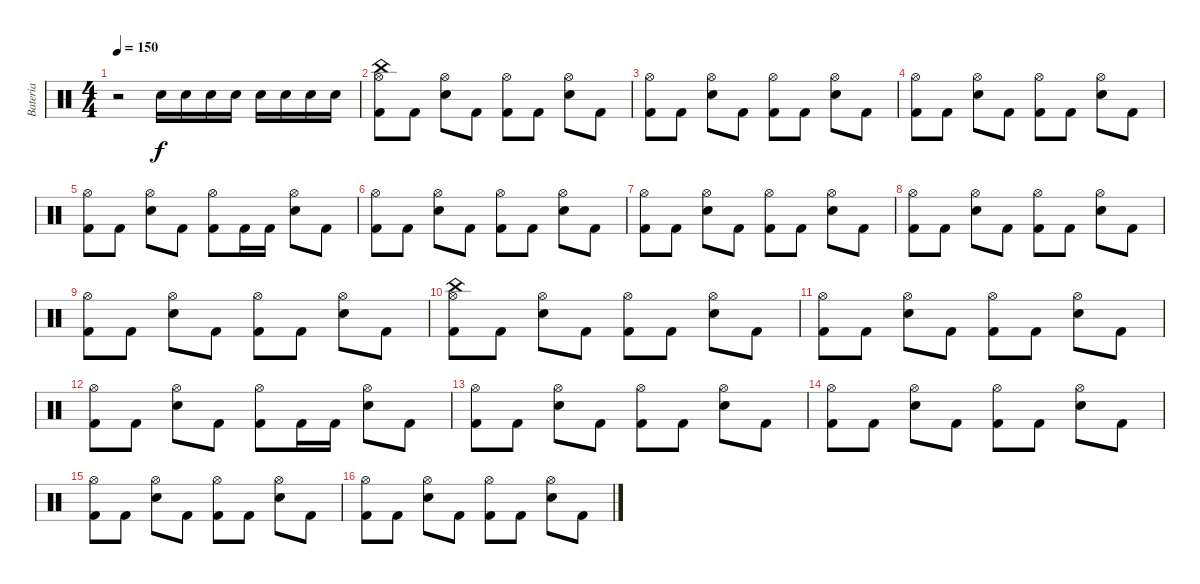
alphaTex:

\track ("Bateria" "Bateria") {instrument percussion}
\staff {score}
\articulation defaults
\ts (4 4)
\tempo 150
\clef neutral
\ks c
r.2{dy f} "Electric Snare (hit)".16 "Electric Snare (hit)".16 "Electric Snare (hit)".16 "Electric Snare (hit)".16 "Electric Snare (hit)".16 "Electric Snare (hit)".16 "Electric Snare (hit)".16 "Electric Snare (hit)".16 |
("Kick (hit) 2" "China (hit)" "Hi-Hat (open)").8 "Kick (hit) 2".8 ("Electric Snare (hit)" "Hi-Hat (open)").8 "Kick (hit) 2".8 ("Kick (hit) 2" "Hi-Hat (open)").8 "Kick (hit) 2".8 ("Electric Snare (hit)" "Hi-Hat (open)").8 "Kick (hit) 2".8 |
("Kick (hit) 2" "Hi-Hat (open)").8 "Kick (hit) 2".8 ("Electric Snare (hit)" "Hi-Hat (open)").8 "Kick (hit) 2".8 ("Kick (hit) 2" "Hi-Hat (open)").8 "Kick (hit) 2".8 ("Electric Snare (hit)" "Hi-Hat (open)").8 "Kick (hit) 2".8 |
("Kick (hit) 2" "Hi-Hat (open)").8 "Kick (hit) 2".8 ("Electric Snare (hit)" "Hi-Hat (open)").8 "Kick (hit) 2".8 ("Kick (hit) 2" "Hi-Hat (open)").8 "Kick (hit) 2".8 ("Electric Snare (hit)" "Hi-Hat (open)").8 "Kick (hit) 2".8 |
("Kick (hit) 2" "Hi-Hat (open)").8 "Kick (hit) 2".8 ("Electric Snare (hit)" "Hi-Hat (open)").8 "Kick (hit) 2".8 ("Kick (hit) 2" "Hi-Hat (open)").8 "Kick (hit) 2".16 "Kick (hit) 2".16 ("Electric Snare (hit)" "Hi-Hat (open)").8 "Kick (hit) 2".8 |
("Kick (hit) 2" "Hi-Hat (open)").8 "Kick (hit) 2".8 ("Electric Snare (hit)" "Hi-Hat (open)").8 "Kick (hit) 2".8 ("Kick (hit) 2" "Hi-Hat (open)").8 "Kick (hit) 2".8 ("Electric Snare (hit)" "Hi-Hat (open)").8 "Kick (hit) 2".8 |
("Kick (hit) 2" "Hi-Hat (open)").8 "Kick (hit) 2".8 ("Electric Snare (hit)" "Hi-Hat (open)").8 "Kick (hit) 2".8 ("Kick (hit) 2" "Hi-Hat (open)").8 "Kick (hit) 2".8 ("Electric Snare (hit)" "Hi-Hat (open)").8 "Kick (hit) 2".8 |
("Kick (hit) 2" "Hi-Hat (open)").8 "Kick (hit) 2".8 ("Electric Snare (hit)" "Hi-Hat (open)").8 "Kick (hit) 2".8 ("Kick (hit) 2" "Hi-Hat (open)").8 "Kick (hit) 2".8 ("Electric Snare (hit)" "Hi-Hat (open)").8 "Kick (hit) 2".8 |
("Kick (hit) 2" "Hi-Hat (open)").8 "Kick (hit) 2".8 ("Electric Snare (hit)" "Hi-Hat (open)").8 "Kick (hit) 2".8 ("Kick (hit) 2" "Hi-Hat (open)").8 "Kick (hit) 2".8 ("Electric Snare (hit)" "Hi-Hat (open)").8 "Kick (hit) 2".8 |
("Kick (hit) 2" "China (hit)" "Hi-Hat (open)").8 "Kick (hit) 2".8 ("Electric Snare (hit)" "Hi-Hat (open)").8 "Kick (hit) 2".8 ("Kick (hit) 2" "Hi-Hat (open)").8 "Kick (hit) 2".8 ("Electric Snare (hit)" "Hi-Hat (open)").8 "Kick (hit) 2".8 |
("Kick (hit) 2" "Hi-Hat (open)").8 "Kick (hit) 2".8 ("Electric Snare (hit)" "Hi-Hat (open)").8 "Kick (hit) 2".8 ("Kick (hit) 2" "Hi-Hat (open)").8 "Kick (hit) 2".8 ("Electric Snare (hit)" "Hi-Hat (open)").8 "Kick (hit) 2".8 |
("Kick (hit) 2" "Hi-Hat (open)").8 "Kick (hit) 2".8 ("Electric Snare (hit)" "Hi-Hat (open)").8 "Kick (hit) 2".8 ("Kick (hit) 2" "Hi-Hat (open)").8 "Kick (hit) 2".16 "Kick (hit) 2".16 ("Electric Snare (hit)" "Hi-Hat (open)").8 "Kick (hit) 2".8 |
("Kick (hit) 2" "Hi-Hat (open)").8 "Kick (hit) 2".8 ("Electric Snare (hit)" "Hi-Hat (open)").8 "Kick (hit) 2".8 ("Kick (hit) 2" "Hi-Hat (open)").8 "Kick (hit) 2".8 ("Electric Snare (hit)" "Hi-Hat (open)").8 "Kick (hit) 2".8 |
("Kick (hit) 2" "Hi-Hat (open)").8 "Kick (hit) 2".8 ("Electric Snare (hit)" "Hi-Hat (open)").8 "Kick (hit) 2".8 ("Kick (hit) 2" "Hi-Hat (open)").8 "Kick (hit) 2".8 ("Electric Snare (hit)" "Hi-Hat (open)").8 "Kick (hit) 2".8 |
("Kick (hit) 2" "Hi-Hat (open)").8 "Kick (hit) 2".8 ("Electric Snare (hit)" "Hi-Hat (open)").8 "Kick (hit) 2".8 ("Kick (hit) 2" "Hi-Hat (open)").8 "Kick (hit) 2".8 ("Electric Snare (hit)" "Hi-Hat (open)").8 "Kick (hit) 2".8 |
("Kick (hit) 2" "Hi-Hat (open)").8 "Kick (hit) 2".8 ("Electric Snare (hit)" "Hi-Hat (open)").8 "Kick (hit) 2".8 ("Kick (hit) 2" "Hi-Hat (open)").8 "Kick (hit) 2".8 ("Electric Snare (hit)" "Hi-Hat (open)").8 "Kick (hit) 2".8
